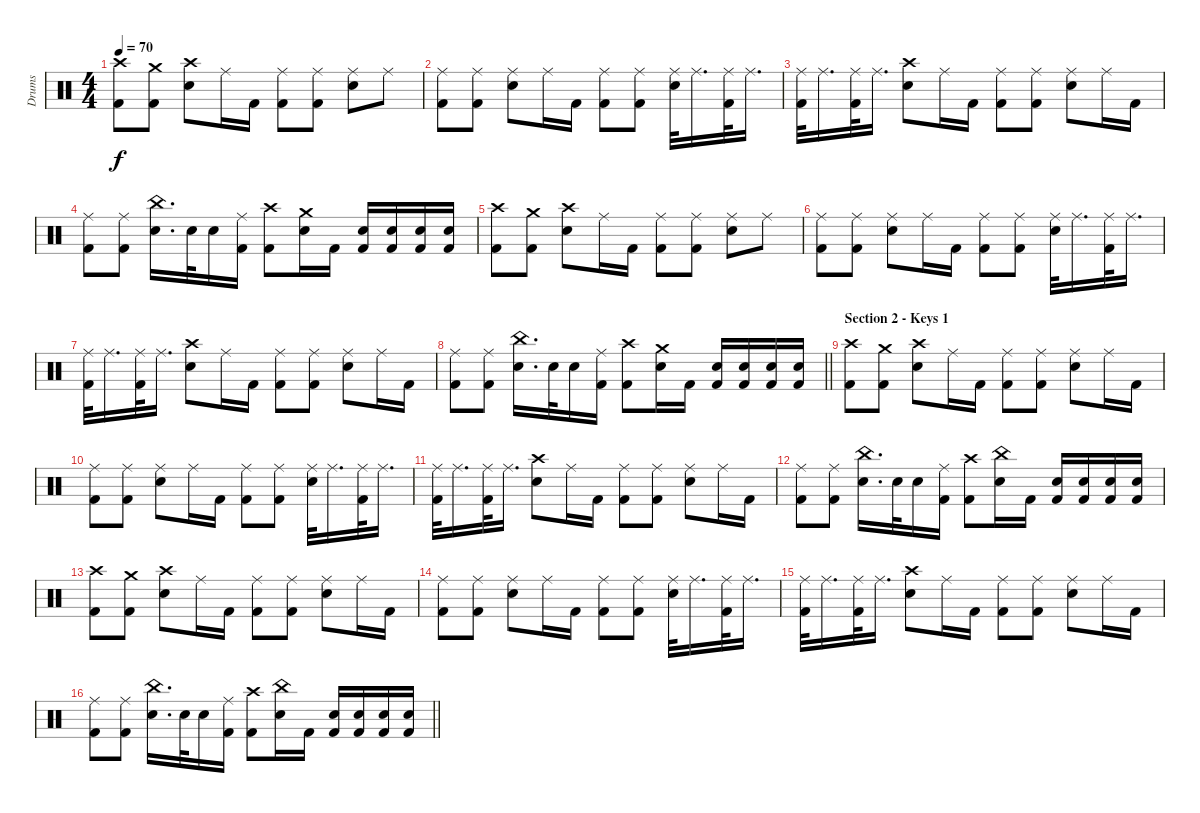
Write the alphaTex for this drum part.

\track ("Drums" "Drums") {instrument percussion}
\staff {score}
\articulation defaults
\ts (4 4)
\tempo 70
\clef neutral
\ks c
("Crash high (hit)" "Kick (hit) 2").8{dy f} ("Crash medium (hit)" "Kick (hit) 2").8 ("Crash high (hit)" "Electric Snare (hit)").8 "Ride (middle)".16 "Kick (hit) 2".16 ("Ride (middle)" "Kick (hit) 2").8 ("Ride (middle)" "Kick (hit) 2").8 ("Ride (middle)" "Electric Snare (hit)").8 "Ride (middle)".8 |
("Ride (middle)" "Kick (hit) 2").8 ("Ride (middle)" "Kick (hit) 2").8 ("Ride (middle)" "Electric Snare (hit)").8 "Ride (middle)".16 "Kick (hit) 2".16 ("Ride (middle)" "Kick (hit) 2").8 ("Ride (middle)" "Kick (hit) 2").8 ("Ride (middle)" "Electric Snare (hit)").32 "Ride (middle)".16{d} ("Ride (middle)" "Kick (hit) 2").32 "Ride (middle)".16{d} |
("Ride (middle)" "Kick (hit) 2").32 "Ride (middle)".16{d} ("Ride (middle)" "Kick (hit) 2").32 "Ride (middle)".16{d} ("Crash high (hit)" "Electric Snare (hit)").8 "Ride (middle)".16 "Kick (hit) 2".16 ("Ride (middle)" "Kick (hit) 2").8 ("Ride (middle)" "Kick (hit) 2").8 ("Ride (middle)" "Electric Snare (hit)").8 "Ride (middle)".16 "Kick (hit) 2".16 |
("Ride (middle)" "Kick (hit) 2").8 ("Ride (middle)" "Kick (hit) 2").8 ("China (hit)" "Electric Snare (hit)").16{d} "Electric Snare (hit)".32 "Electric Snare (hit)".16 ("Ride (middle)" "Kick (hit) 2").16 ("Crash high (hit)" "Kick (hit) 2").8 ("Crash medium (hit)" "Electric Snare (hit)").16 "Kick (hit) 2".16 ("Electric Snare (hit)" "Kick (hit) 2").16 ("Electric Snare (hit)" "Kick (hit) 2").16 ("Electric Snare (hit)" "Kick (hit) 2").16 ("Electric Snare (hit)" "Kick (hit) 2").16 |
("Crash high (hit)" "Kick (hit) 2").8 ("Crash medium (hit)" "Kick (hit) 2").8 ("Crash high (hit)" "Electric Snare (hit)").8 "Ride (middle)".16 "Kick (hit) 2".16 ("Ride (middle)" "Kick (hit) 2").8 ("Ride (middle)" "Kick (hit) 2").8 ("Ride (middle)" "Electric Snare (hit)").8 "Ride (middle)".8 |
("Ride (middle)" "Kick (hit) 2").8 ("Ride (middle)" "Kick (hit) 2").8 ("Ride (middle)" "Electric Snare (hit)").8 "Ride (middle)".16 "Kick (hit) 2".16 ("Ride (middle)" "Kick (hit) 2").8 ("Ride (middle)" "Kick (hit) 2").8 ("Ride (middle)" "Electric Snare (hit)").32 "Ride (middle)".16{d} ("Ride (middle)" "Kick (hit) 2").32 "Ride (middle)".16{d} |
("Ride (middle)" "Kick (hit) 2").32 "Ride (middle)".16{d} ("Ride (middle)" "Kick (hit) 2").32 "Ride (middle)".16{d} ("Crash high (hit)" "Electric Snare (hit)").8 "Ride (middle)".16 "Kick (hit) 2".16 ("Ride (middle)" "Kick (hit) 2").8 ("Ride (middle)" "Kick (hit) 2").8 ("Ride (middle)" "Electric Snare (hit)").8 "Ride (middle)".16 "Kick (hit) 2".16 |
\barLineRight lightlight
("Ride (middle)" "Kick (hit) 2").8 ("Ride (middle)" "Kick (hit) 2").8 ("China (hit)" "Electric Snare (hit)").16{d} "Electric Snare (hit)".32 "Electric Snare (hit)".16 ("Ride (middle)" "Kick (hit) 2").16 ("Crash high (hit)" "Kick (hit) 2").8 ("Crash medium (hit)" "Electric Snare (hit)").16 "Kick (hit) 2".16 ("Electric Snare (hit)" "Kick (hit) 2").16 ("Electric Snare (hit)" "Kick (hit) 2").16 ("Electric Snare (hit)" "Kick (hit) 2").16 ("Electric Snare (hit)" "Kick (hit) 2").16 |
\section ("" "Section 2 - Keys 1")
("Crash high (hit)" "Kick (hit) 2").8 ("Crash medium (hit)" "Kick (hit) 2").8 ("Crash high (hit)" "Electric Snare (hit)").8 "Ride (middle)".16 "Kick (hit) 2".16 ("Ride (middle)" "Kick (hit) 2").8 ("Ride (middle)" "Kick (hit) 2").8 ("Ride (middle)" "Electric Snare (hit)").8 "Ride (middle)".16 "Kick (hit) 2".16 |
("Ride (middle)" "Kick (hit) 2").8 ("Ride (middle)" "Kick (hit) 2").8 ("Ride (middle)" "Electric Snare (hit)").8 "Ride (middle)".16 "Kick (hit) 2".16 ("Ride (middle)" "Kick (hit) 2").8 ("Ride (middle)" "Kick (hit) 2").8 ("Ride (middle)" "Electric Snare (hit)").32 "Ride (middle)".16{d} ("Ride (middle)" "Kick (hit) 2").32 "Ride (middle)".16{d} |
("Ride (middle)" "Kick (hit) 2").32 "Ride (middle)".16{d} ("Ride (middle)" "Kick (hit) 2").32 "Ride (middle)".16{d} ("Crash high (hit)" "Electric Snare (hit)").8 "Ride (middle)".16 "Kick (hit) 2".16 ("Ride (middle)" "Kick (hit) 2").8 ("Ride (middle)" "Kick (hit) 2").8 ("Ride (middle)" "Electric Snare (hit)").8 "Ride (middle)".16 "Kick (hit) 2".16 |
("Ride (middle)" "Kick (hit) 2").8 ("Ride (middle)" "Kick (hit) 2").8 ("China (hit)" "Electric Snare (hit)").16{d} "Electric Snare (hit)".32 "Electric Snare (hit)".16 ("Ride (middle)" "Kick (hit) 2").16 ("Crash high (hit)" "Kick (hit) 2").8 ("China (hit)" "Electric Snare (hit)").16 "Kick (hit) 2".16 ("Electric Snare (hit)" "Kick (hit) 2").16 ("Electric Snare (hit)" "Kick (hit) 2").16 ("Electric Snare (hit)" "Kick (hit) 2").16 ("Electric Snare (hit)" "Kick (hit) 2").16 |
("Crash high (hit)" "Kick (hit) 2").8 ("Crash medium (hit)" "Kick (hit) 2").8 ("Crash high (hit)" "Electric Snare (hit)").8 "Ride (middle)".16 "Kick (hit) 2".16 ("Ride (middle)" "Kick (hit) 2").8 ("Ride (middle)" "Kick (hit) 2").8 ("Ride (middle)" "Electric Snare (hit)").8 "Ride (middle)".16 "Kick (hit) 2".16 |
("Ride (middle)" "Kick (hit) 2").8 ("Ride (middle)" "Kick (hit) 2").8 ("Ride (middle)" "Electric Snare (hit)").8 "Ride (middle)".16 "Kick (hit) 2".16 ("Ride (middle)" "Kick (hit) 2").8 ("Ride (middle)" "Kick (hit) 2").8 ("Ride (middle)" "Electric Snare (hit)").32 "Ride (middle)".16{d} ("Ride (middle)" "Kick (hit) 2").32 "Ride (middle)".16{d} |
("Ride (middle)" "Kick (hit) 2").32 "Ride (middle)".16{d} ("Ride (middle)" "Kick (hit) 2").32 "Ride (middle)".16{d} ("Crash high (hit)" "Electric Snare (hit)").8 "Ride (middle)".16 "Kick (hit) 2".16 ("Ride (middle)" "Kick (hit) 2").8 ("Ride (middle)" "Kick (hit) 2").8 ("Ride (middle)" "Electric Snare (hit)").8 "Ride (middle)".16 "Kick (hit) 2".16 |
\barLineRight lightlight
("Ride (middle)" "Kick (hit) 2").8 ("Ride (middle)" "Kick (hit) 2").8 ("China (hit)" "Electric Snare (hit)").16{d} "Electric Snare (hit)".32 "Electric Snare (hit)".16 ("Ride (middle)" "Kick (hit) 2").16 ("Crash high (hit)" "Kick (hit) 2").8 ("China (hit)" "Electric Snare (hit)").16 "Kick (hit) 2".16 ("Electric Snare (hit)" "Kick (hit) 2").16 ("Electric Snare (hit)" "Kick (hit) 2").16 ("Electric Snare (hit)" "Kick (hit) 2").16 ("Electric Snare (hit)" "Kick (hit) 2").16
